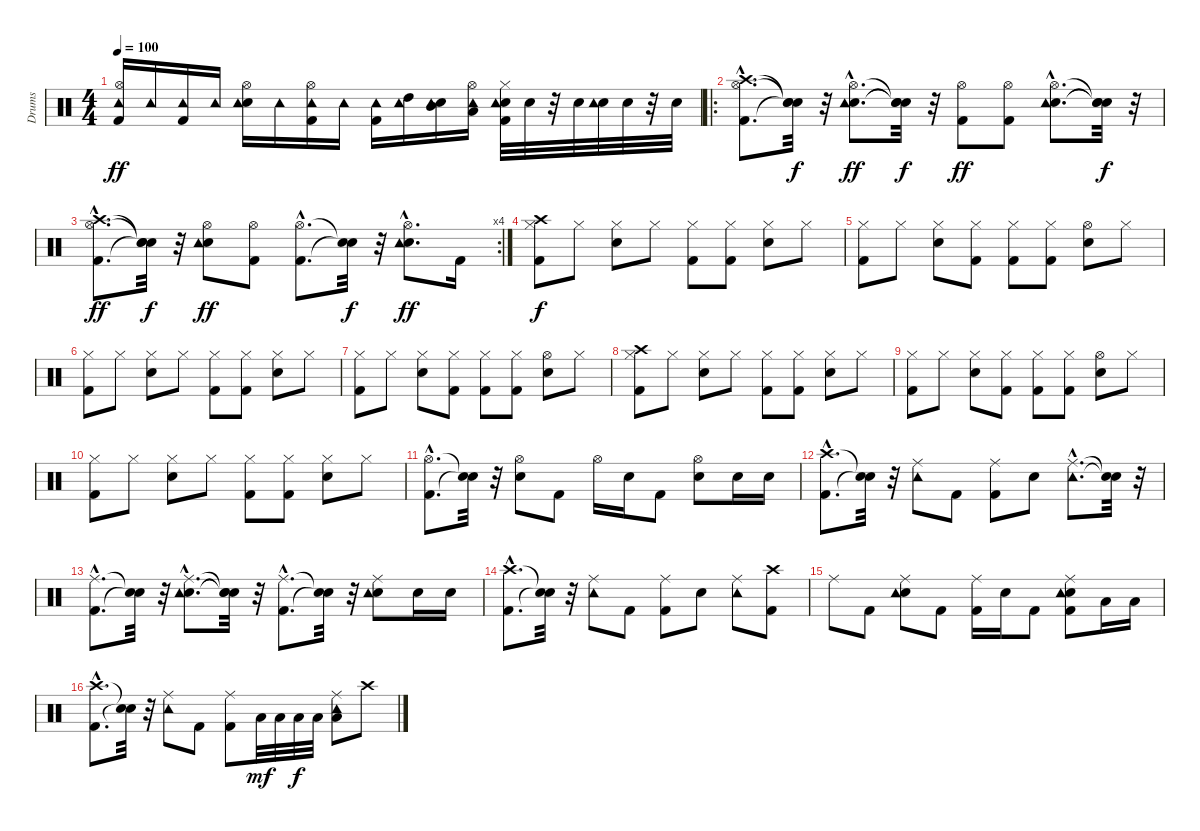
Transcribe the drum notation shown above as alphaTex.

\track ("Drums" "Drums") {instrument percussion}
\staff {score}
\articulation defaults
\ts (4 4)
\tempo 100
\clef neutral
\ks c
("Kick (hit) 2" "Hi-Hat (open)" "Tambourine (hit)").16{dy ff} "Tambourine (hit)".16 ("Kick (hit) 2" "Tambourine (hit)").16 "Tambourine (hit)".16 ("Snare (hit) 2" "Hi-Hat (open)" "Tambourine (hit)").16 "Tambourine (hit)".16 ("Kick (hit) 2" "Hi-Hat (open)" "Tambourine (hit)").16 "Tambourine (hit)".16 ("Kick (hit) 2" "Tambourine (hit)").16 ("High Tom (hit)" "Tambourine (hit)").16 ("Snare (hit) 2" "Mid Tom (hit)" "Tambourine (hit)").16 ("Low Tom (hit)" "Hi-Hat (open)" "Tambourine (hit)").16 ("Kick (hit) 2" "Snare (hit) 2" "Hi-Hat (closed)" "Tambourine (hit)").32 "Snare (hit) 2".32 r.32 "Snare (hit) 2".32 ("Snare (hit) 2" "Tambourine (hit)").32 "Snare (hit) 2".32 r.32 "Snare (hit) 2".32 |
\ro
("Kick (hit) 2"{hac} "Hi-Hat (open)"{hac} "Crash high (hit)"{hac}).8{d} ("Snare (hit)"{t} "Snare (hit)"{t} "Snare (hit)"{t}).32{dy f} r.32 ("Snare (hit) 2"{hac} "Hi-Hat (open)"{hac} "Tambourine (hit)"{hac}).8{d dy ff} ("Snare (hit)"{t} "Snare (hit)"{t} "Snare (hit)"{t}).32{dy f} r.32 ("Kick (hit) 2" "Hi-Hat (open)").8{dy ff} ("Kick (hit) 2" "Hi-Hat (open)").8 ("Snare (hit) 2"{hac} "Hi-Hat (open)"{hac} "Tambourine (hit)"{hac}).8{d} ("Snare (hit)"{t} "Snare (hit)"{t} "Snare (hit)"{t}).32{dy f} r.32 |
\rc 4
("Kick (hit) 2"{hac} "Hi-Hat (open)"{hac} "Crash high (hit)"{hac}).8{d dy ff} ("Snare (hit)"{t} "Snare (hit)"{t} "Snare (hit)"{t}).32{dy f} r.32 ("Snare (hit) 2" "Hi-Hat (open)" "Tambourine (hit)").8{dy ff} ("Kick (hit) 2" "Hi-Hat (open)").8 ("Kick (hit) 2"{hac} "Hi-Hat (open)"{hac}).8{d} ("Snare (hit)"{t} "Snare (hit)"{t}).32{dy f} r.32 ("Snare (hit) 2"{hac} "Hi-Hat (open)"{hac} "Tambourine (hit)"{hac}).8{d dy ff} "Kick (hit) 2".16 |
("Kick (hit) 2" "Hi-Hat (closed)" "Crash high (hit)").8{dy f} "Hi-Hat (closed)".8 ("Snare (hit) 2" "Hi-Hat (closed)").8 "Hi-Hat (closed)".8 ("Kick (hit) 2" "Hi-Hat (closed)").8 ("Kick (hit) 2" "Hi-Hat (closed)").8 ("Snare (hit) 2" "Hi-Hat (closed)").8 "Hi-Hat (closed)".8 |
("Kick (hit) 2" "Hi-Hat (closed)").8 "Hi-Hat (closed)".8 ("Snare (hit) 2" "Hi-Hat (closed)").8 ("Kick (hit) 2" "Hi-Hat (closed)").8 ("Kick (hit) 2" "Hi-Hat (closed)").8 ("Kick (hit) 2" "Hi-Hat (closed)").8 ("Snare (hit) 2" "Hi-Hat (open)").8 "Hi-Hat (closed)".8 |
("Kick (hit) 2" "Hi-Hat (closed)").8 "Hi-Hat (closed)".8 ("Snare (hit) 2" "Hi-Hat (closed)").8 "Hi-Hat (closed)".8 ("Kick (hit) 2" "Hi-Hat (closed)").8 ("Kick (hit) 2" "Hi-Hat (closed)").8 ("Snare (hit) 2" "Hi-Hat (closed)").8 "Hi-Hat (closed)".8 |
("Kick (hit) 2" "Hi-Hat (closed)").8 "Hi-Hat (closed)".8 ("Snare (hit) 2" "Hi-Hat (closed)").8 ("Kick (hit) 2" "Hi-Hat (closed)").8 ("Kick (hit) 2" "Hi-Hat (closed)").8 ("Kick (hit) 2" "Hi-Hat (closed)").8 ("Snare (hit) 2" "Hi-Hat (open)").8 "Hi-Hat (closed)".8 |
("Kick (hit) 2" "Hi-Hat (closed)" "Crash high (hit)").8 "Hi-Hat (closed)".8 ("Snare (hit) 2" "Hi-Hat (closed)").8 "Hi-Hat (closed)".8 ("Kick (hit) 2" "Hi-Hat (closed)").8 ("Kick (hit) 2" "Hi-Hat (closed)").8 ("Snare (hit) 2" "Hi-Hat (closed)").8 "Hi-Hat (closed)".8 |
("Kick (hit) 2" "Hi-Hat (closed)").8 "Hi-Hat (closed)".8 ("Snare (hit) 2" "Hi-Hat (closed)").8 ("Kick (hit) 2" "Hi-Hat (closed)").8 ("Kick (hit) 2" "Hi-Hat (closed)").8 ("Kick (hit) 2" "Hi-Hat (closed)").8 ("Snare (hit) 2" "Hi-Hat (open)").8 "Hi-Hat (closed)".8 |
("Kick (hit) 2" "Hi-Hat (closed)").8 "Hi-Hat (closed)".8 ("Snare (hit) 2" "Hi-Hat (closed)").8 "Hi-Hat (closed)".8 ("Kick (hit) 2" "Hi-Hat (closed)").8 ("Kick (hit) 2" "Hi-Hat (closed)").8 ("Snare (hit) 2" "Hi-Hat (closed)").8 "Hi-Hat (closed)".8 |
("Kick (hit) 2"{hac} "Hi-Hat (open)"{hac}).8{d} ("Snare (hit)"{t} "Snare (hit)"{t}).32 r.32 ("Snare (hit) 2" "Hi-Hat (open)").8 "Kick (hit) 2".8 "Hi-Hat (open)".16 "Snare (hit) 2".16 "Kick (hit) 2".8 ("Snare (hit) 2" "Hi-Hat (open)").8 "Snare (hit) 2".16 "Snare (hit) 2".16 |
("Kick (hit) 2"{hac} "Crash high (hit)"{hac}).8{d} ("Snare (hit)"{t} "Snare (hit)"{t}).32 r.32 ("Ride (middle)" "Tambourine (hit)").8 "Kick (hit) 2".8 ("Kick (hit) 2" "Ride (middle)").8 "Snare (hit) 2".8 ("Ride (middle)"{hac} "Tambourine (hit)"{hac}).8{d} ("Snare (hit)"{t} "Snare (hit)"{t}).32 r.32 |
("Kick (hit) 2"{hac} "Ride (middle)"{hac}).8{d} ("Snare (hit)"{t} "Snare (hit)"{t}).32 r.32 ("Snare (hit) 2"{hac} "Ride (middle)"{hac} "Tambourine (hit)"{hac}).8{d} ("Snare (hit)"{t} "Snare (hit)"{t} "Snare (hit)"{t}).32 r.32 ("Kick (hit) 2"{hac} "Ride (middle)"{hac}).8{d} ("Snare (hit)"{t} "Snare (hit)"{t}).32 r.32 ("Snare (hit) 2" "Ride (middle)" "Tambourine (hit)").8 "Snare (hit) 2".16 "Snare (hit) 2".16 |
("Kick (hit) 2"{hac} "Crash high (hit)"{hac}).8{d} ("Snare (hit)"{t} "Snare (hit)"{t}).32 r.32 ("Ride (middle)" "Tambourine (hit)").8 "Kick (hit) 2".8 ("Kick (hit) 2" "Ride (middle)").8 "Snare (hit) 2".8 ("Ride (middle)" "Tambourine (hit)").8 ("Kick (hit) 2" "Crash high (hit)").8 |
"Ride (middle)".8 "Kick (hit) 2".8 ("Snare (hit) 2" "Ride (middle)" "Tambourine (hit)").8 "Kick (hit) 2".8 ("Kick (hit) 2" "Ride (middle)").16 "Snare (hit) 2".16 "Kick (hit) 2".8 ("Kick (hit) 2" "Snare (hit) 2" "Ride (middle)" "Tambourine (hit)").8 "Low Floor Tom (hit)".16 "Low Floor Tom (hit)".16 |
("Kick (hit) 2"{hac} "Crash high (hit)"{hac}).8{d} ("Snare (hit)"{t} "Snare (hit)"{t}).32 r.32 ("Ride (middle)" "Tambourine (hit)").8 "Kick (hit) 2".8 ("Kick (hit) 2" "Ride (middle)").8 "Low Tom (hit)".32{dy mf} "Low Tom (hit)".32 "Low Tom (hit)".32{dy f} "Low Tom (hit)".32 ("Low Floor Tom (hit)" "Ride (middle)" "Tambourine (hit)").8 "Crash high (hit)".8
